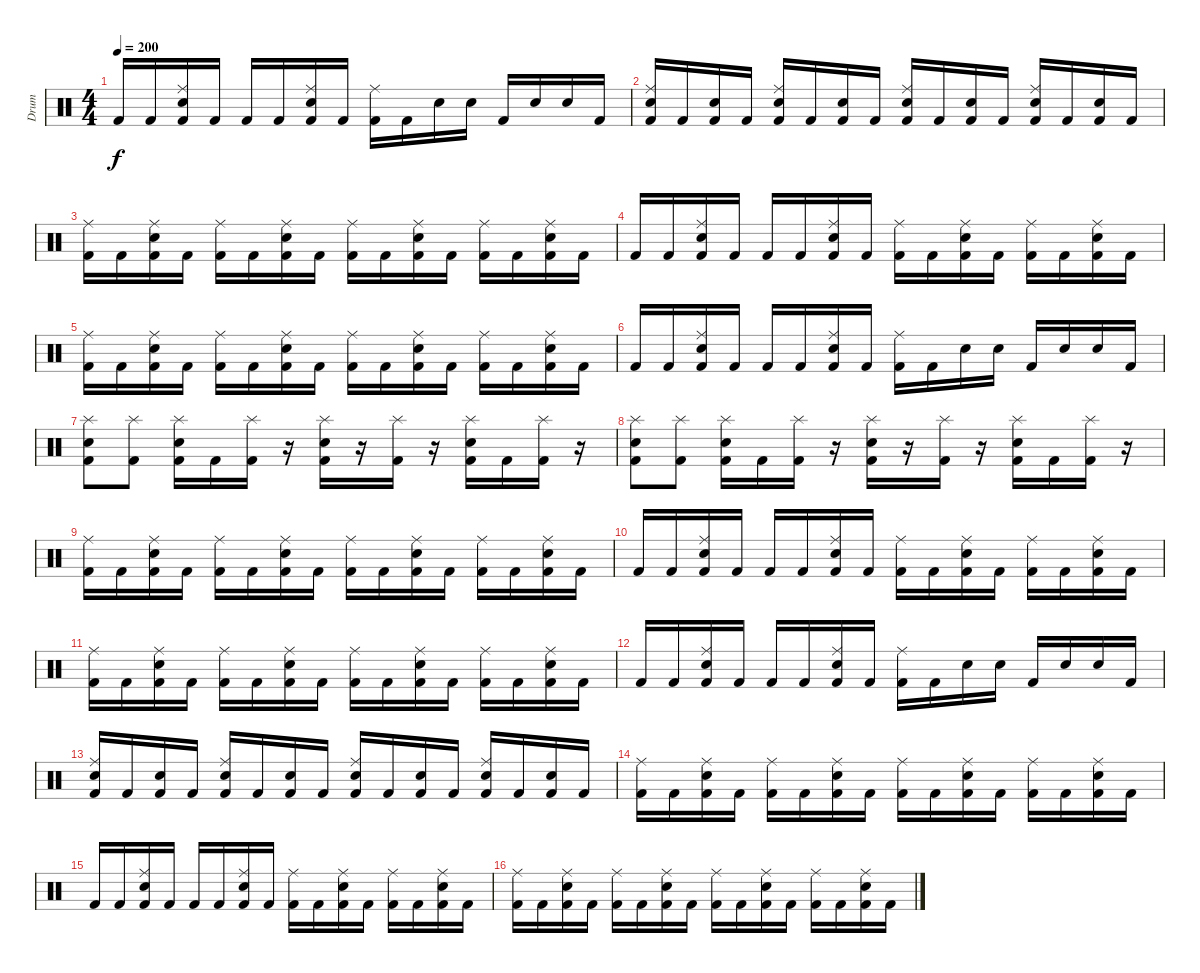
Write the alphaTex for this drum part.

\track ("Drum" "Drum") {instrument percussion}
\staff {score}
\articulation defaults
\ts (4 4)
\tempo 200
\clef neutral
\ks c "Kick (hit) 2".16{dy f} "Kick (hit) 2".16
("Ride (middle)" "Electric Snare (hit)" "Kick (hit) 2").16 "Kick (hit) 2".16 "Kick (hit) 2".16 "Kick (hit) 2".16 ("Ride (middle)" "Electric Snare (hit)" "Kick (hit) 2").16 "Kick (hit) 2".16 ("Ride (middle)" "Kick (hit) 2").16 "Kick (hit) 2".16 "Electric Snare (hit)".16 "Electric Snare (hit)".16 "Kick (hit) 2".16 "Electric Snare (hit)".16 "Electric Snare (hit)".16 "Kick (hit) 2".16 |
("Ride (middle)" "Electric Snare (hit)" "Kick (hit) 2").16 "Kick (hit) 2".16 ("Electric Snare (hit)" "Kick (hit) 2").16 "Kick (hit) 2".16 ("Ride (middle)" "Electric Snare (hit)" "Kick (hit) 2").16 "Kick (hit) 2".16 ("Electric Snare (hit)" "Kick (hit) 2").16 "Kick (hit) 2".16 ("Ride (middle)" "Electric Snare (hit)" "Kick (hit) 2").16 "Kick (hit) 2".16 ("Electric Snare (hit)" "Kick (hit) 2").16 "Kick (hit) 2".16 ("Ride (middle)" "Electric Snare (hit)" "Kick (hit) 2").16 "Kick (hit) 2".16 ("Electric Snare (hit)" "Kick (hit) 2").16 "Kick (hit) 2".16 |
("Ride (middle)" "Kick (hit) 2").16 "Kick (hit) 2".16 ("Ride (middle)" "Electric Snare (hit)" "Kick (hit) 2").16 "Kick (hit) 2".16 ("Ride (middle)" "Kick (hit) 2").16 "Kick (hit) 2".16 ("Ride (middle)" "Electric Snare (hit)" "Kick (hit) 2").16 "Kick (hit) 2".16 ("Ride (middle)" "Kick (hit) 2").16 "Kick (hit) 2".16 ("Ride (middle)" "Electric Snare (hit)" "Kick (hit) 2").16 "Kick (hit) 2".16 ("Ride (middle)" "Kick (hit) 2").16 "Kick (hit) 2".16 ("Ride (middle)" "Electric Snare (hit)" "Kick (hit) 2").16 "Kick (hit) 2".16 |
"Kick (hit) 2".16 "Kick (hit) 2".16 ("Ride (middle)" "Electric Snare (hit)" "Kick (hit) 2").16 "Kick (hit) 2".16 "Kick (hit) 2".16 "Kick (hit) 2".16 ("Ride (middle)" "Electric Snare (hit)" "Kick (hit) 2").16 "Kick (hit) 2".16 ("Ride (middle)" "Kick (hit) 2").16 "Kick (hit) 2".16 ("Ride (middle)" "Electric Snare (hit)" "Kick (hit) 2").16 "Kick (hit) 2".16 ("Ride (middle)" "Kick (hit) 2").16 "Kick (hit) 2".16 ("Ride (middle)" "Electric Snare (hit)" "Kick (hit) 2").16 "Kick (hit) 2".16 |
("Ride (middle)" "Kick (hit) 2").16 "Kick (hit) 2".16 ("Ride (middle)" "Electric Snare (hit)" "Kick (hit) 2").16 "Kick (hit) 2".16 ("Ride (middle)" "Kick (hit) 2").16 "Kick (hit) 2".16 ("Ride (middle)" "Electric Snare (hit)" "Kick (hit) 2").16 "Kick (hit) 2".16 ("Ride (middle)" "Kick (hit) 2").16 "Kick (hit) 2".16 ("Ride (middle)" "Electric Snare (hit)" "Kick (hit) 2").16 "Kick (hit) 2".16 ("Ride (middle)" "Kick (hit) 2").16 "Kick (hit) 2".16 ("Ride (middle)" "Electric Snare (hit)" "Kick (hit) 2").16 "Kick (hit) 2".16 |
"Kick (hit) 2".16 "Kick (hit) 2".16 ("Ride (middle)" "Electric Snare (hit)" "Kick (hit) 2").16 "Kick (hit) 2".16 "Kick (hit) 2".16 "Kick (hit) 2".16 ("Ride (middle)" "Electric Snare (hit)" "Kick (hit) 2").16 "Kick (hit) 2".16 ("Ride (middle)" "Kick (hit) 2").16 "Kick (hit) 2".16 "Electric Snare (hit)".16 "Electric Snare (hit)".16 "Kick (hit) 2".16 "Electric Snare (hit)".16 "Electric Snare (hit)".16 "Kick (hit) 2".16 |
("Splash (hit)" "Electric Snare (hit)" "Kick (hit) 2").8 ("Splash (hit)" "Kick (hit) 2").8 ("Splash (hit)" "Electric Snare (hit)" "Kick (hit) 2").16 "Kick (hit) 2".16 ("Splash (hit)" "Kick (hit) 2").16 r.16 ("Splash (hit)" "Electric Snare (hit)" "Kick (hit) 2").16 r.16 ("Splash (hit)" "Kick (hit) 2").16 r.16 ("Splash (hit)" "Electric Snare (hit)" "Kick (hit) 2").16 "Kick (hit) 2".16 ("Splash (hit)" "Kick (hit) 2").16 r.16 |
("Splash (hit)" "Electric Snare (hit)" "Kick (hit) 2").8 ("Splash (hit)" "Kick (hit) 2").8 ("Splash (hit)" "Electric Snare (hit)" "Kick (hit) 2").16 "Kick (hit) 2".16 ("Splash (hit)" "Kick (hit) 2").16 r.16 ("Splash (hit)" "Electric Snare (hit)" "Kick (hit) 2").16 r.16 ("Splash (hit)" "Kick (hit) 2").16 r.16 ("Splash (hit)" "Electric Snare (hit)" "Kick (hit) 2").16 "Kick (hit) 2".16 ("Splash (hit)" "Kick (hit) 2").16 r.16 |
("Ride (middle)" "Kick (hit) 2").16 "Kick (hit) 2".16 ("Ride (middle)" "Electric Snare (hit)" "Kick (hit) 2").16 "Kick (hit) 2".16 ("Ride (middle)" "Kick (hit) 2").16 "Kick (hit) 2".16 ("Ride (middle)" "Electric Snare (hit)" "Kick (hit) 2").16 "Kick (hit) 2".16 ("Ride (middle)" "Kick (hit) 2").16 "Kick (hit) 2".16 ("Ride (middle)" "Electric Snare (hit)" "Kick (hit) 2").16 "Kick (hit) 2".16 ("Ride (middle)" "Kick (hit) 2").16 "Kick (hit) 2".16 ("Ride (middle)" "Electric Snare (hit)" "Kick (hit) 2").16 "Kick (hit) 2".16 |
"Kick (hit) 2".16 "Kick (hit) 2".16 ("Ride (middle)" "Electric Snare (hit)" "Kick (hit) 2").16 "Kick (hit) 2".16 "Kick (hit) 2".16 "Kick (hit) 2".16 ("Ride (middle)" "Electric Snare (hit)" "Kick (hit) 2").16 "Kick (hit) 2".16 ("Ride (middle)" "Kick (hit) 2").16 "Kick (hit) 2".16 ("Ride (middle)" "Electric Snare (hit)" "Kick (hit) 2").16 "Kick (hit) 2".16 ("Ride (middle)" "Kick (hit) 2").16 "Kick (hit) 2".16 ("Ride (middle)" "Electric Snare (hit)" "Kick (hit) 2").16 "Kick (hit) 2".16 |
("Ride (middle)" "Kick (hit) 2").16 "Kick (hit) 2".16 ("Ride (middle)" "Electric Snare (hit)" "Kick (hit) 2").16 "Kick (hit) 2".16 ("Ride (middle)" "Kick (hit) 2").16 "Kick (hit) 2".16 ("Ride (middle)" "Electric Snare (hit)" "Kick (hit) 2").16 "Kick (hit) 2".16 ("Ride (middle)" "Kick (hit) 2").16 "Kick (hit) 2".16 ("Ride (middle)" "Electric Snare (hit)" "Kick (hit) 2").16 "Kick (hit) 2".16 ("Ride (middle)" "Kick (hit) 2").16 "Kick (hit) 2".16 ("Ride (middle)" "Electric Snare (hit)" "Kick (hit) 2").16 "Kick (hit) 2".16 |
"Kick (hit) 2".16 "Kick (hit) 2".16 ("Ride (middle)" "Electric Snare (hit)" "Kick (hit) 2").16 "Kick (hit) 2".16 "Kick (hit) 2".16 "Kick (hit) 2".16 ("Ride (middle)" "Electric Snare (hit)" "Kick (hit) 2").16 "Kick (hit) 2".16 ("Ride (middle)" "Kick (hit) 2").16 "Kick (hit) 2".16 "Electric Snare (hit)".16 "Electric Snare (hit)".16 "Kick (hit) 2".16 "Electric Snare (hit)".16 "Electric Snare (hit)".16 "Kick (hit) 2".16 |
("Ride (middle)" "Electric Snare (hit)" "Kick (hit) 2").16 "Kick (hit) 2".16 ("Electric Snare (hit)" "Kick (hit) 2").16 "Kick (hit) 2".16 ("Ride (middle)" "Electric Snare (hit)" "Kick (hit) 2").16 "Kick (hit) 2".16 ("Electric Snare (hit)" "Kick (hit) 2").16 "Kick (hit) 2".16 ("Ride (middle)" "Electric Snare (hit)" "Kick (hit) 2").16 "Kick (hit) 2".16 ("Electric Snare (hit)" "Kick (hit) 2").16 "Kick (hit) 2".16 ("Ride (middle)" "Electric Snare (hit)" "Kick (hit) 2").16 "Kick (hit) 2".16 ("Electric Snare (hit)" "Kick (hit) 2").16 "Kick (hit) 2".16 |
("Ride (middle)" "Kick (hit) 2").16 "Kick (hit) 2".16 ("Ride (middle)" "Electric Snare (hit)" "Kick (hit) 2").16 "Kick (hit) 2".16 ("Ride (middle)" "Kick (hit) 2").16 "Kick (hit) 2".16 ("Ride (middle)" "Electric Snare (hit)" "Kick (hit) 2").16 "Kick (hit) 2".16 ("Ride (middle)" "Kick (hit) 2").16 "Kick (hit) 2".16 ("Ride (middle)" "Electric Snare (hit)" "Kick (hit) 2").16 "Kick (hit) 2".16 ("Ride (middle)" "Kick (hit) 2").16 "Kick (hit) 2".16 ("Ride (middle)" "Electric Snare (hit)" "Kick (hit) 2").16 "Kick (hit) 2".16 |
"Kick (hit) 2".16 "Kick (hit) 2".16 ("Ride (middle)" "Electric Snare (hit)" "Kick (hit) 2").16 "Kick (hit) 2".16 "Kick (hit) 2".16 "Kick (hit) 2".16 ("Ride (middle)" "Electric Snare (hit)" "Kick (hit) 2").16 "Kick (hit) 2".16 ("Ride (middle)" "Kick (hit) 2").16 "Kick (hit) 2".16 ("Ride (middle)" "Electric Snare (hit)" "Kick (hit) 2").16 "Kick (hit) 2".16 ("Ride (middle)" "Kick (hit) 2").16 "Kick (hit) 2".16 ("Ride (middle)" "Electric Snare (hit)" "Kick (hit) 2").16 "Kick (hit) 2".16 |
("Ride (middle)" "Kick (hit) 2").16 "Kick (hit) 2".16 ("Ride (middle)" "Electric Snare (hit)" "Kick (hit) 2").16 "Kick (hit) 2".16 ("Ride (middle)" "Kick (hit) 2").16 "Kick (hit) 2".16 ("Ride (middle)" "Electric Snare (hit)" "Kick (hit) 2").16 "Kick (hit) 2".16 ("Ride (middle)" "Kick (hit) 2").16 "Kick (hit) 2".16 ("Ride (middle)" "Electric Snare (hit)" "Kick (hit) 2").16 "Kick (hit) 2".16 ("Ride (middle)" "Kick (hit) 2").16 "Kick (hit) 2".16 ("Ride (middle)" "Electric Snare (hit)" "Kick (hit) 2").16 "Kick (hit) 2".16
